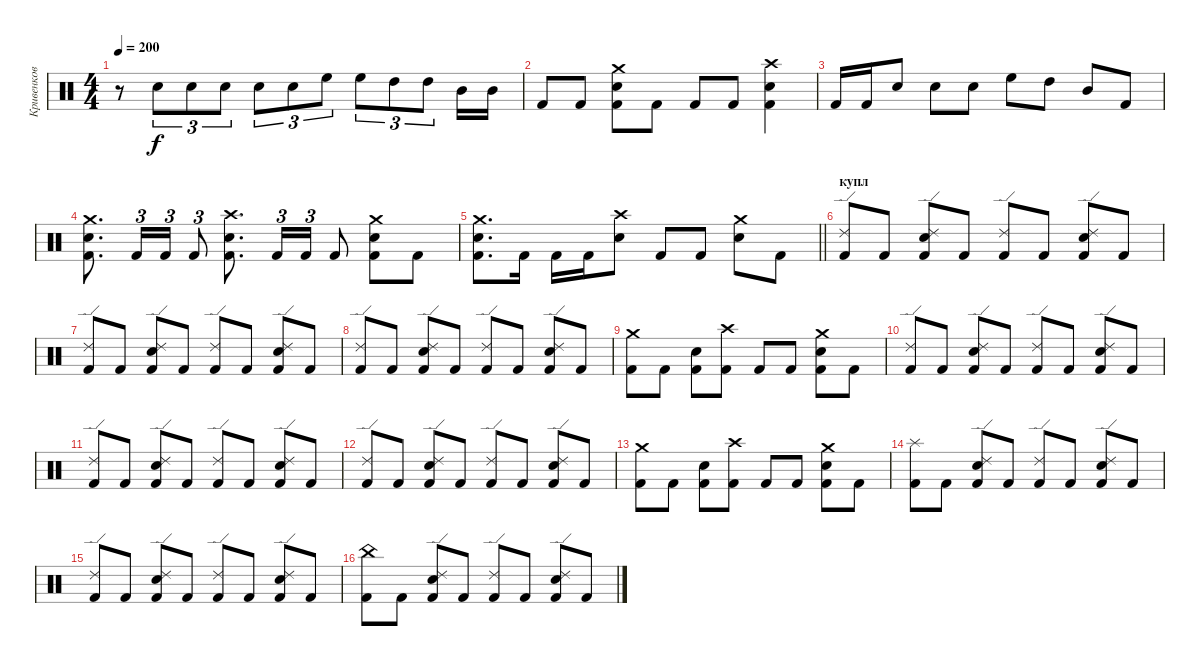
\track ("Кривенков" "Кривенков") {instrument percussion}
\staff {score}
\articulation defaults
\ts (4 4)
\tempo 200
\clef neutral
\ks c
r.8{dy f} "Electric Snare (hit)".8{tu (3 2)} "Electric Snare (hit)".8{tu (3 2)} "Electric Snare (hit)".8{tu (3 2)} "Electric Snare (hit)".8{tu (3 2)} "Electric Snare (hit)".8{tu (3 2)} "High Floor Tom (hit)".8{tu (3 2)} "High Floor Tom (hit)".8{tu (3 2)} "High Tom (hit)".8{tu (3 2)} "High Tom (hit)".8{tu (3 2)} "Mid Tom (hit)".16 "Mid Tom (hit)".16 |
"Kick (hit) 2".8 "Kick (hit) 2".8 ("Crash medium (hit)" "Electric Snare (hit)" "Kick (hit) 2").8 "Kick (hit) 2".8 "Kick (hit) 2".8 "Kick (hit) 2".8 ("Crash high (hit)" "Electric Snare (hit)" "Kick (hit) 2").4 |
"Kick (hit) 2".16 "Kick (hit) 2".16 "Electric Snare (hit)".8 "Electric Snare (hit)".8 "Electric Snare (hit)".8 "High Floor Tom (hit)".8 "High Tom (hit)".8 "Mid Tom (hit)".8 "Kick (hit) 2".8 |
("Crash medium (hit)" "Electric Snare (hit)" "Kick (hit) 2").8{d} "Kick (hit) 2".16{tu (3 2)} "Kick (hit) 2".16{tu (3 2)} "Kick (hit) 2".8{tu (3 2)} ("Crash high (hit)" "Electric Snare (hit)" "Kick (hit) 2").8{d} "Kick (hit) 2".16{tu (3 2)} "Kick (hit) 2".16{tu (3 2)} "Kick (hit) 2".8 ("Crash medium (hit)" "Electric Snare (hit)" "Kick (hit) 2").8 "Kick (hit) 2".8 |
\barLineRight lightlight
("Crash medium (hit)" "Electric Snare (hit)" "Kick (hit) 2").8{d} "Kick (hit) 2".16 "Kick (hit) 2".16 "Kick (hit) 2".16 ("Crash high (hit)" "Electric Snare (hit)").8 "Kick (hit) 2".8 "Kick (hit) 2".8 ("Crash medium (hit)" "Electric Snare (hit)").8 "Kick (hit) 2".8 |
\section ("" "купл")
("Ride (edge) 2" "Kick (hit) 2").8 "Kick (hit) 2".8 ("Ride (edge) 2" "Electric Snare (hit)" "Kick (hit) 2").8 "Kick (hit) 2".8 ("Ride (edge) 2" "Kick (hit) 2").8 "Kick (hit) 2".8 ("Ride (edge) 2" "Electric Snare (hit)" "Kick (hit) 2").8 "Kick (hit) 2".8 |
("Ride (edge) 2" "Kick (hit) 2").8 "Kick (hit) 2".8 ("Ride (edge) 2" "Electric Snare (hit)" "Kick (hit) 2").8 "Kick (hit) 2".8 ("Ride (edge) 2" "Kick (hit) 2").8 "Kick (hit) 2".8 ("Ride (edge) 2" "Electric Snare (hit)" "Kick (hit) 2").8 "Kick (hit) 2".8 |
("Ride (edge) 2" "Kick (hit) 2").8 "Kick (hit) 2".8 ("Ride (edge) 2" "Electric Snare (hit)" "Kick (hit) 2").8 "Kick (hit) 2".8 ("Ride (edge) 2" "Kick (hit) 2").8 "Kick (hit) 2".8 ("Ride (edge) 2" "Electric Snare (hit)" "Kick (hit) 2").8 "Kick (hit) 2".8 |
("Crash medium (hit)" "Kick (hit) 2").8 "Kick (hit) 2".8 ("Electric Snare (hit)" "Kick (hit) 2").8 ("Crash high (hit)" "Kick (hit) 2").8 "Kick (hit) 2".8 "Kick (hit) 2".8 ("Crash medium (hit)" "Electric Snare (hit)" "Kick (hit) 2").8 "Kick (hit) 2".8 |
("Ride (edge) 2" "Kick (hit) 2").8 "Kick (hit) 2".8 ("Ride (edge) 2" "Electric Snare (hit)" "Kick (hit) 2").8 "Kick (hit) 2".8 ("Ride (edge) 2" "Kick (hit) 2").8 "Kick (hit) 2".8 ("Ride (edge) 2" "Electric Snare (hit)" "Kick (hit) 2").8 "Kick (hit) 2".8 |
("Ride (edge) 2" "Kick (hit) 2").8 "Kick (hit) 2".8 ("Ride (edge) 2" "Electric Snare (hit)" "Kick (hit) 2").8 "Kick (hit) 2".8 ("Ride (edge) 2" "Kick (hit) 2").8 "Kick (hit) 2".8 ("Ride (edge) 2" "Electric Snare (hit)" "Kick (hit) 2").8 "Kick (hit) 2".8 |
("Ride (edge) 2" "Kick (hit) 2").8 "Kick (hit) 2".8 ("Ride (edge) 2" "Electric Snare (hit)" "Kick (hit) 2").8 "Kick (hit) 2".8 ("Ride (edge) 2" "Kick (hit) 2").8 "Kick (hit) 2".8 ("Ride (edge) 2" "Electric Snare (hit)" "Kick (hit) 2").8 "Kick (hit) 2".8 |
("Crash medium (hit)" "Kick (hit) 2").8 "Kick (hit) 2".8 ("Electric Snare (hit)" "Kick (hit) 2").8 ("Crash high (hit)" "Kick (hit) 2").8 "Kick (hit) 2".8 "Kick (hit) 2".8 ("Crash medium (hit)" "Electric Snare (hit)" "Kick (hit) 2").8 "Kick (hit) 2".8 |
("Splash (hit)" "Kick (hit) 2").8 "Kick (hit) 2".8 ("Ride (edge) 2" "Electric Snare (hit)" "Kick (hit) 2").8 "Kick (hit) 2".8 ("Ride (edge) 2" "Kick (hit) 2").8 "Kick (hit) 2".8 ("Ride (edge) 2" "Electric Snare (hit)" "Kick (hit) 2").8 "Kick (hit) 2".8 |
("Ride (edge) 2" "Kick (hit) 2").8 "Kick (hit) 2".8 ("Ride (edge) 2" "Electric Snare (hit)" "Kick (hit) 2").8 "Kick (hit) 2".8 ("Ride (edge) 2" "Kick (hit) 2").8 "Kick (hit) 2".8 ("Ride (edge) 2" "Electric Snare (hit)" "Kick (hit) 2").8 "Kick (hit) 2".8 |
("China (hit)" "Kick (hit) 2").8 "Kick (hit) 2".8 ("Ride (edge) 2" "Electric Snare (hit)" "Kick (hit) 2").8 "Kick (hit) 2".8 ("Ride (edge) 2" "Kick (hit) 2").8 "Kick (hit) 2".8 ("Ride (edge) 2" "Electric Snare (hit)" "Kick (hit) 2").8 "Kick (hit) 2".8
